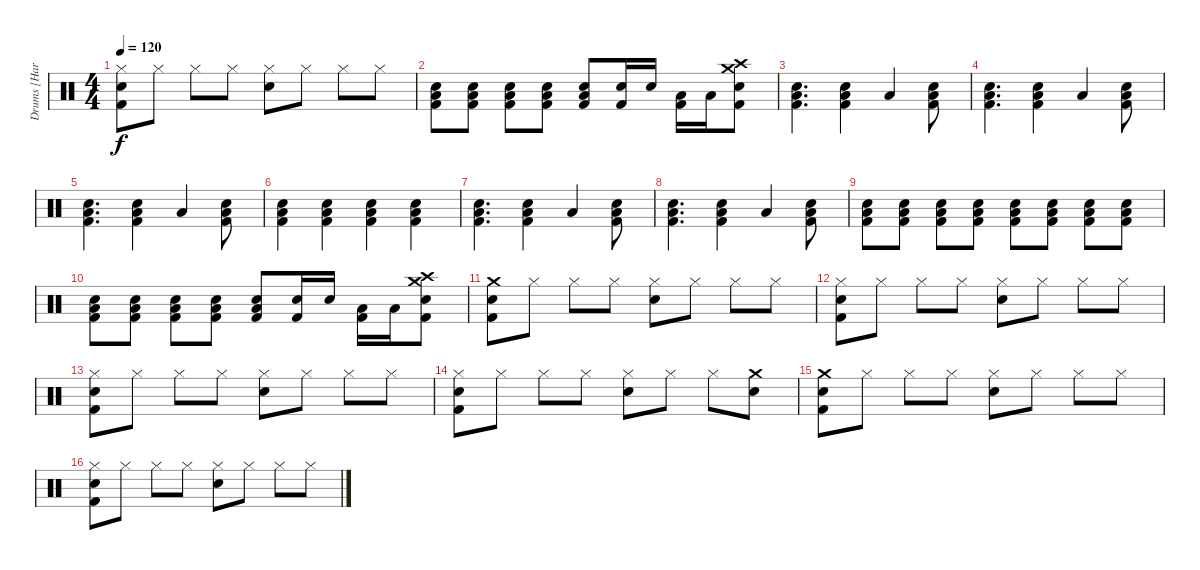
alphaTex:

\track ("Drums [Harry]" "Drums [Har") {instrument percussion}
\staff {score}
\articulation defaults
\ts (4 4)
\tempo 120
\clef neutral
\ks c
("Snare (hit) 2" "Hi-Hat (closed)" "Kick (hit) 2").8{dy f} "Hi-Hat (closed)".8 "Hi-Hat (closed)".8 "Hi-Hat (closed)".8 ("Snare (hit) 2" "Hi-Hat (closed)").8 "Hi-Hat (closed)".8 "Hi-Hat (closed)".8 "Hi-Hat (closed)".8 |
("Snare (hit) 2" "Low Floor Tom (hit)" "Kick (hit) 2").8 ("Snare (hit) 2" "Low Floor Tom (hit)" "Kick (hit) 2").8 ("Snare (hit) 2" "Low Floor Tom (hit)" "Kick (hit) 2").8 ("Snare (hit) 2" "Low Floor Tom (hit)" "Kick (hit) 2").8 ("Snare (hit) 2" "Low Floor Tom (hit)" "Kick (hit) 2").8 ("Snare (hit) 2" "Kick (hit) 2").16 "Snare (hit) 2".16 ("Low Tom (hit)" "Kick (hit) 2").16 "Low Tom (hit)".16 ("Crash medium (hit)" "Crash high (hit)" "Snare (hit) 2" "Kick (hit) 2").8 |
("Snare (hit) 2" "Low Floor Tom (hit)" "Kick (hit) 2").4{d} ("Snare (hit) 2" "Low Floor Tom (hit)" "Kick (hit) 2").4 "Low Floor Tom (hit)".4 ("Snare (hit) 2" "Low Floor Tom (hit)" "Kick (hit) 2").8 |
("Snare (hit) 2" "Low Floor Tom (hit)" "Kick (hit) 2").4{d} ("Snare (hit) 2" "Low Floor Tom (hit)" "Kick (hit) 2").4 "Low Floor Tom (hit)".4 ("Snare (hit) 2" "Low Floor Tom (hit)" "Kick (hit) 2").8 |
("Snare (hit) 2" "Low Floor Tom (hit)" "Kick (hit) 2").4{d} ("Snare (hit) 2" "Low Floor Tom (hit)" "Kick (hit) 2").4 "Low Floor Tom (hit)".4 ("Snare (hit) 2" "Low Floor Tom (hit)" "Kick (hit) 2").8 |
("Snare (hit) 2" "Low Floor Tom (hit)" "Kick (hit) 2").4 ("Snare (hit) 2" "Low Floor Tom (hit)" "Kick (hit) 2").4 ("Snare (hit) 2" "Low Floor Tom (hit)" "Kick (hit) 2").4 ("Snare (hit) 2" "Low Floor Tom (hit)" "Kick (hit) 2").4 |
("Snare (hit) 2" "Low Floor Tom (hit)" "Kick (hit) 2").4{d} ("Snare (hit) 2" "Low Floor Tom (hit)" "Kick (hit) 2").4 "Low Floor Tom (hit)".4 ("Snare (hit) 2" "Low Floor Tom (hit)" "Kick (hit) 2").8 |
("Snare (hit) 2" "Low Floor Tom (hit)" "Kick (hit) 2").4{d} ("Snare (hit) 2" "Low Floor Tom (hit)" "Kick (hit) 2").4 "Low Floor Tom (hit)".4 ("Snare (hit) 2" "Low Floor Tom (hit)" "Kick (hit) 2").8 |
("Snare (hit) 2" "Low Floor Tom (hit)" "Kick (hit) 2").8 ("Snare (hit) 2" "Low Floor Tom (hit)" "Kick (hit) 2").8 ("Snare (hit) 2" "Low Floor Tom (hit)" "Kick (hit) 2").8 ("Snare (hit) 2" "Low Floor Tom (hit)" "Kick (hit) 2").8 ("Snare (hit) 2" "Low Floor Tom (hit)" "Kick (hit) 2").8 ("Snare (hit) 2" "Low Floor Tom (hit)" "Kick (hit) 2").8 ("Snare (hit) 2" "Low Floor Tom (hit)" "Kick (hit) 2").8 ("Snare (hit) 2" "Low Floor Tom (hit)" "Kick (hit) 2").8 |
("Snare (hit) 2" "Low Floor Tom (hit)" "Kick (hit) 2").8 ("Snare (hit) 2" "Low Floor Tom (hit)" "Kick (hit) 2").8 ("Snare (hit) 2" "Low Floor Tom (hit)" "Kick (hit) 2").8 ("Snare (hit) 2" "Low Floor Tom (hit)" "Kick (hit) 2").8 ("Snare (hit) 2" "Low Floor Tom (hit)" "Kick (hit) 2").8 ("Snare (hit) 2" "Kick (hit) 2").16 "Snare (hit) 2".16 ("Low Tom (hit)" "Kick (hit) 2").16 "Low Tom (hit)".16 ("Crash medium (hit)" "Crash high (hit)" "Snare (hit) 2" "Kick (hit) 2").8 |
("Crash medium (hit)" "Snare (hit) 2" "Kick (hit) 2").8 "Hi-Hat (closed)".8 "Hi-Hat (closed)".8 "Hi-Hat (closed)".8 ("Snare (hit) 2" "Hi-Hat (closed)").8 "Hi-Hat (closed)".8 "Hi-Hat (closed)".8 "Hi-Hat (closed)".8 |
("Snare (hit) 2" "Hi-Hat (closed)" "Kick (hit) 2").8 "Hi-Hat (closed)".8 "Hi-Hat (closed)".8 "Hi-Hat (closed)".8 ("Snare (hit) 2" "Hi-Hat (closed)").8 "Hi-Hat (closed)".8 "Hi-Hat (closed)".8 "Hi-Hat (closed)".8 |
("Snare (hit) 2" "Hi-Hat (closed)" "Kick (hit) 2").8 "Hi-Hat (closed)".8 "Hi-Hat (closed)".8 "Hi-Hat (closed)".8 ("Snare (hit) 2" "Hi-Hat (closed)").8 "Hi-Hat (closed)".8 "Hi-Hat (closed)".8 "Hi-Hat (closed)".8 |
("Snare (hit) 2" "Hi-Hat (closed)" "Kick (hit) 2").8 "Hi-Hat (closed)".8 "Hi-Hat (closed)".8 "Hi-Hat (closed)".8 ("Snare (hit) 2" "Hi-Hat (closed)").8 "Hi-Hat (closed)".8 "Hi-Hat (closed)".8 ("Crash medium (hit)" "Snare (hit) 2").8 |
("Crash medium (hit)" "Snare (hit) 2" "Kick (hit) 2").8 "Hi-Hat (closed)".8 "Hi-Hat (closed)".8 "Hi-Hat (closed)".8 ("Snare (hit) 2" "Hi-Hat (closed)").8 "Hi-Hat (closed)".8 "Hi-Hat (closed)".8 "Hi-Hat (closed)".8 |
("Snare (hit) 2" "Hi-Hat (closed)" "Kick (hit) 2").8 "Hi-Hat (closed)".8 "Hi-Hat (closed)".8 "Hi-Hat (closed)".8 ("Snare (hit) 2" "Hi-Hat (closed)").8 "Hi-Hat (closed)".8 "Hi-Hat (closed)".8 "Hi-Hat (closed)".8
